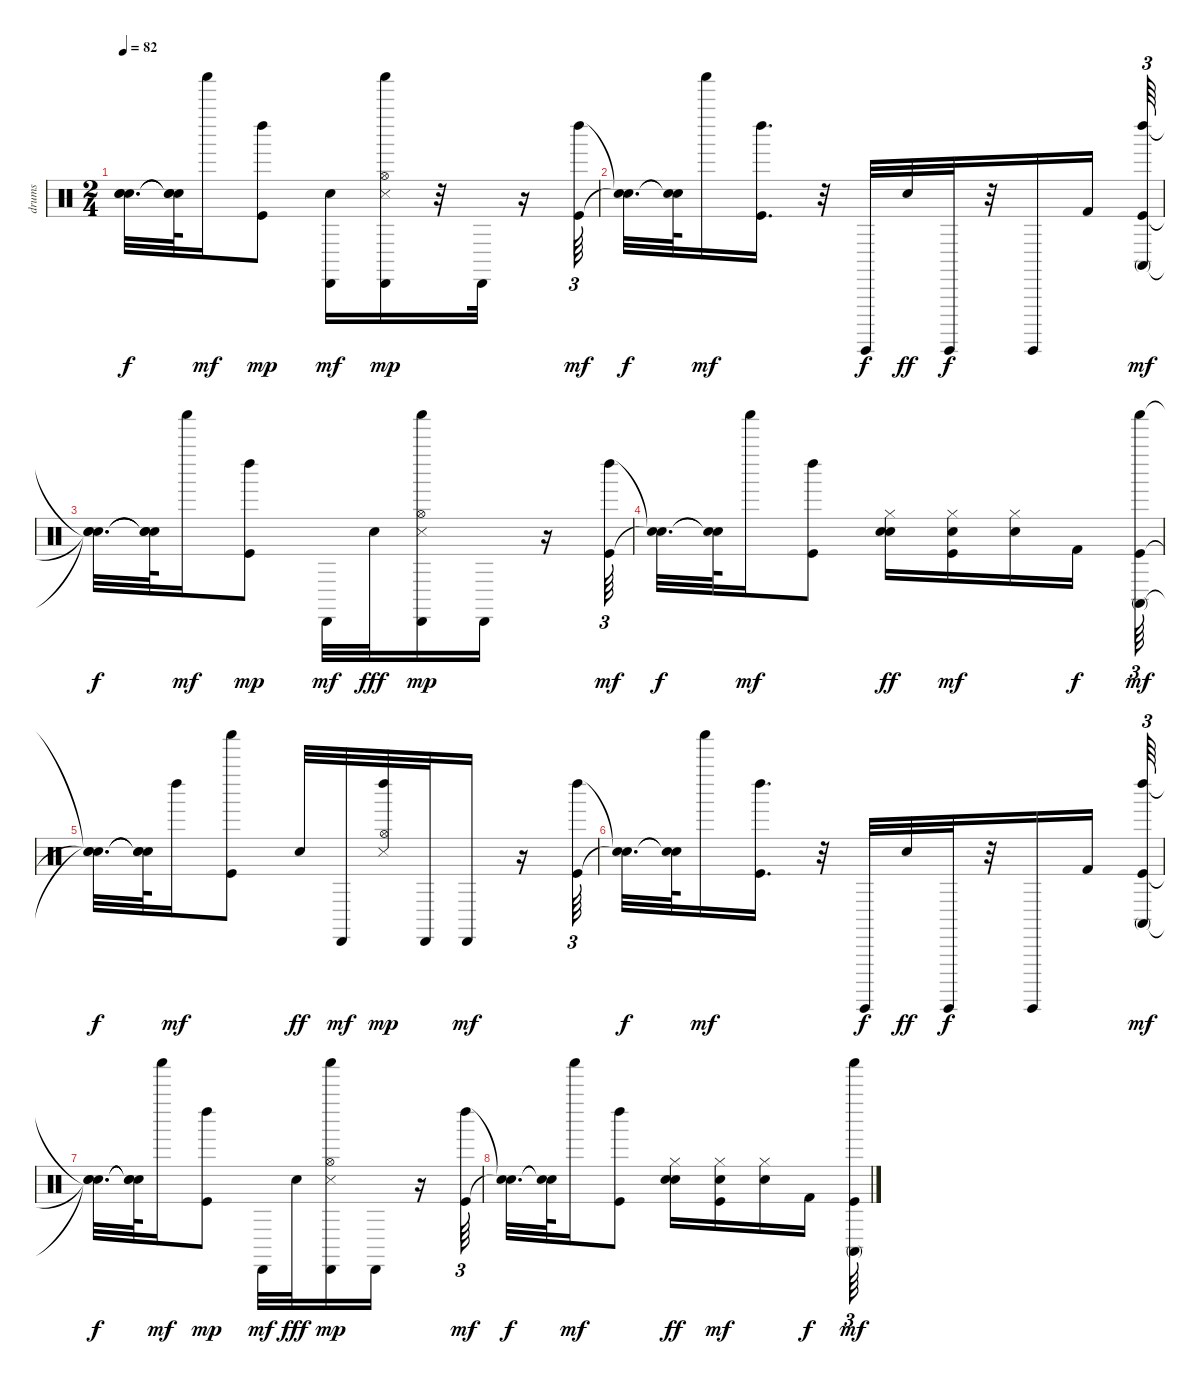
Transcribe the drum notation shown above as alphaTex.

\track ("drums" "drums") {instrument percussion}
\staff {score}
\articulation defaults
\ts (2 4)
\tempo 82
\clef neutral
\ks c
("Snare (hit)"{t} "Snare (hit)"{t} "Snare (hit)"{t}).32{d dy f} ("Snare (hit)"{t} "Snare (hit)"{t} "Snare (hit)"{t}).64 "Shaker (hit)".16{dy mf} ("Kick (hit)" "Left Maraca (hit)").8{dy mp} ("Electric Snare (hit)" "Cabasa (hit)").16{dy mf} ("Snare (side stick) 3" "Shaker (hit)" "Hi-Hat (open)" "Cabasa (hit)").16{dy mp} r.32 "Cabasa (hit)".32 r.16 ("Kick (hit)" "Left Maraca (hit)").64{tu (3 2) dy mf} |
("Snare (hit)"{t} "Snare (hit)"{t}).32{d dy f} ("Snare (hit)"{t} "Snare (hit)"{t}).64 "Shaker (hit)".16{dy mf} ("Kick (hit)" "Left Maraca (hit)").16{d} r.32 "Guiro (hit)".32{dy f} "Electric Snare (hit)".32{dy ff} "Guiro (hit)".32{dy f} r.32 "Guiro (hit)".16 "Kick (hit) 2".16 ("Kick (hit)" "Left Maraca (hit)" "Conga high (mute)").64{tu (3 2) dy mf} |
("Snare (hit)"{t} "Snare (hit)"{t} "Snare (hit)"{t}).32{d dy f} ("Snare (hit)"{t} "Snare (hit)"{t} "Snare (hit)"{t}).64 "Shaker (hit)".16{dy mf} ("Kick (hit)" "Left Maraca (hit)").8{dy mp} "Cabasa (hit)".32{dy mf} "Electric Snare (hit)".32{dy fff} ("Cabasa (hit)" "Snare (side stick) 3" "Shaker (hit)" "Hi-Hat (open)").16{dy mp} "Cabasa (hit)".16 r.16 ("Kick (hit)" "Left Maraca (hit)").64{tu (3 2) dy mf} |
("Snare (hit)"{t} "Snare (hit)"{t}).32{d dy f} ("Snare (hit)"{t} "Snare (hit)"{t}).64 "Shaker (hit)".16{dy mf} ("Kick (hit)" "Left Maraca (hit)").8 ("Hand Clap (hit)" "Hi-Hat (closed)" "Electric Snare (hit)").16{dy ff} ("Kick (hit)" "Hi-Hat (closed)" "Hand Clap (hit)").16{dy mf} ("Hi-Hat (closed)" "Hand Clap (hit)").16 "Kick (hit) 2".16{dy f} ("Kick (hit)" "Shaker (hit)" "Conga high (mute)").64{tu (3 2) dy mf} |
("Snare (hit)"{t} "Snare (hit)"{t} "Snare (hit)"{t}).32{d dy f} ("Snare (hit)"{t} "Snare (hit)"{t} "Snare (hit)"{t}).64 "Left Maraca (hit)".16{dy mf} ("Kick (hit)" "Shaker (hit)").8 "Electric Snare (hit)".32{dy ff} "Cabasa (hit)".32{dy mf} ("Hi-Hat (open)" "Left Maraca (hit)" "Snare (side stick) 3").32{dy mp} "Cabasa (hit)".32 "Cabasa (hit)".16{dy mf} r.16 ("Kick (hit)" "Left Maraca (hit)").64{tu (3 2)} |
("Snare (hit)"{t} "Snare (hit)"{t}).32{d dy f} ("Snare (hit)"{t} "Snare (hit)"{t}).64 "Shaker (hit)".16{dy mf} ("Kick (hit)" "Left Maraca (hit)").16{d} r.32 "Guiro (hit)".32{dy f} "Electric Snare (hit)".32{dy ff} "Guiro (hit)".32{dy f} r.32 "Guiro (hit)".16 "Kick (hit) 2".16 ("Kick (hit)" "Left Maraca (hit)" "Conga high (mute)").64{tu (3 2) dy mf} |
("Snare (hit)"{t} "Snare (hit)"{t} "Snare (hit)"{t}).32{d dy f} ("Snare (hit)"{t} "Snare (hit)"{t} "Snare (hit)"{t}).64 "Shaker (hit)".16{dy mf} ("Kick (hit)" "Left Maraca (hit)").8{dy mp} "Cabasa (hit)".32{dy mf} "Electric Snare (hit)".32{dy fff} ("Cabasa (hit)" "Snare (side stick) 3" "Shaker (hit)" "Hi-Hat (open)").16{dy mp} "Cabasa (hit)".16 r.16 ("Kick (hit)" "Left Maraca (hit)").64{tu (3 2) dy mf} |
("Snare (hit)"{t} "Snare (hit)"{t}).32{d dy f} ("Snare (hit)"{t} "Snare (hit)"{t}).64 "Shaker (hit)".16{dy mf} ("Kick (hit)" "Left Maraca (hit)").8 ("Hand Clap (hit)" "Hi-Hat (closed)" "Electric Snare (hit)").16{dy ff} ("Kick (hit)" "Hi-Hat (closed)" "Hand Clap (hit)").16{dy mf} ("Hi-Hat (closed)" "Hand Clap (hit)").16 "Kick (hit) 2".16{dy f} ("Kick (hit)" "Shaker (hit)" "Conga high (mute)").64{tu (3 2) dy mf}
